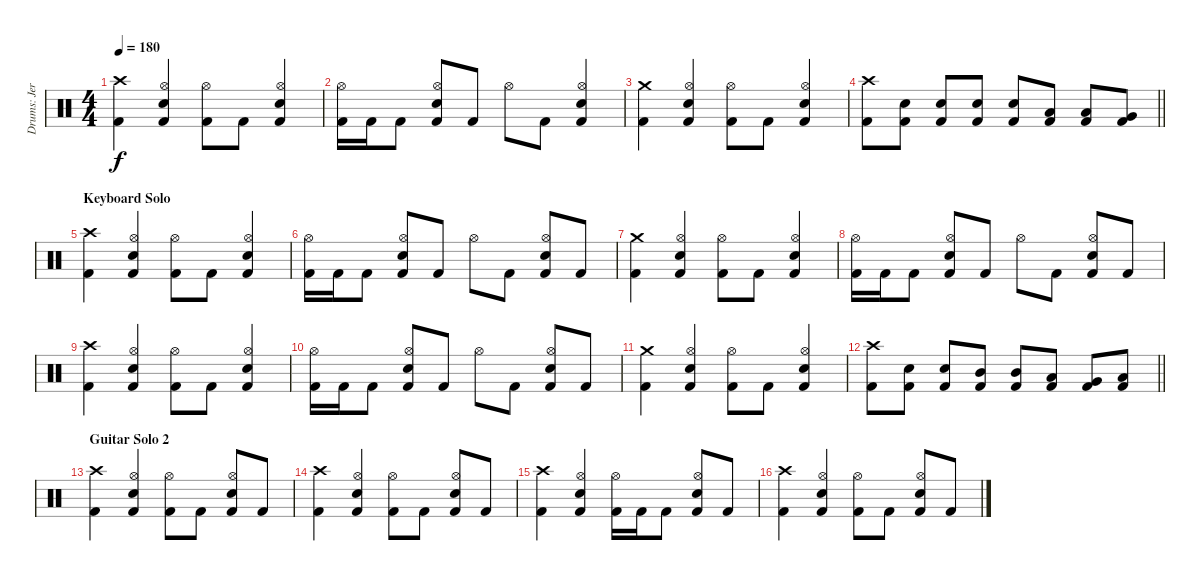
\track ("Drums: Jere Luokkamäki" "Drums: Jer") {instrument percussion}
\staff {score}
\articulation defaults
\ts (4 4)
\tempo 180
\clef neutral
\ks aminor
("Crash high (hit)" "Kick (hit) 2").4{dy f} ("Hi-Hat (open)" "Electric Snare (hit)" "Kick (hit) 2").4 ("Hi-Hat (open)" "Kick (hit) 2").8 "Kick (hit) 2".8 ("Hi-Hat (open)" "Electric Snare (hit)" "Kick (hit) 2").4 |
("Hi-Hat (open)" "Kick (hit) 2").16 "Kick (hit) 2".16 "Kick (hit) 2".8 ("Hi-Hat (open)" "Electric Snare (hit)" "Kick (hit) 2").8 "Kick (hit) 2".8 "Hi-Hat (open)".8 "Kick (hit) 2".8 ("Hi-Hat (open)" "Electric Snare (hit)" "Kick (hit) 2").4 |
("Crash medium (hit)" "Kick (hit) 2").4 ("Hi-Hat (open)" "Electric Snare (hit)" "Kick (hit) 2").4 ("Hi-Hat (open)" "Kick (hit) 2").8 "Kick (hit) 2".8 ("Hi-Hat (open)" "Electric Snare (hit)" "Kick (hit) 2").4 |
\barLineRight lightlight
("Crash high (hit)" "Kick (hit) 2").8 ("Electric Snare (hit)" "Kick (hit) 2").8 ("Electric Snare (hit)" "Kick (hit) 2").8 ("Electric Snare (hit)" "Kick (hit) 2").8 ("Electric Snare (hit)" "Kick (hit) 2").8 ("Low Tom (hit)" "Kick (hit) 2").8 ("Low Tom (hit)" "Kick (hit) 2").8 ("Very Low Tom (hit)" "Kick (hit) 2").8 |
\section ("" "Keyboard Solo")
("Crash high (hit)" "Kick (hit) 2").4 ("Hi-Hat (open)" "Electric Snare (hit)" "Kick (hit) 2").4 ("Hi-Hat (open)" "Kick (hit) 2").8 "Kick (hit) 2".8 ("Hi-Hat (open)" "Electric Snare (hit)" "Kick (hit) 2").4 |
("Hi-Hat (open)" "Kick (hit) 2").16 "Kick (hit) 2".16 "Kick (hit) 2".8 ("Hi-Hat (open)" "Electric Snare (hit)" "Kick (hit) 2").8 "Kick (hit) 2".8 "Hi-Hat (open)".8 "Kick (hit) 2".8 ("Hi-Hat (open)" "Electric Snare (hit)" "Kick (hit) 2").8 "Kick (hit) 2".8 |
("Crash medium (hit)" "Kick (hit) 2").4 ("Hi-Hat (open)" "Electric Snare (hit)" "Kick (hit) 2").4 ("Hi-Hat (open)" "Kick (hit) 2").8 "Kick (hit) 2".8 ("Hi-Hat (open)" "Electric Snare (hit)" "Kick (hit) 2").4 |
("Hi-Hat (open)" "Kick (hit) 2").16 "Kick (hit) 2".16 "Kick (hit) 2".8 ("Hi-Hat (open)" "Electric Snare (hit)" "Kick (hit) 2").8 "Kick (hit) 2".8 "Hi-Hat (open)".8 "Kick (hit) 2".8 ("Hi-Hat (open)" "Electric Snare (hit)" "Kick (hit) 2").8 "Kick (hit) 2".8 |
("Crash high (hit)" "Kick (hit) 2").4 ("Hi-Hat (open)" "Electric Snare (hit)" "Kick (hit) 2").4 ("Hi-Hat (open)" "Kick (hit) 2").8 "Kick (hit) 2".8 ("Hi-Hat (open)" "Electric Snare (hit)" "Kick (hit) 2").4 |
("Hi-Hat (open)" "Kick (hit) 2").16 "Kick (hit) 2".16 "Kick (hit) 2".8 ("Hi-Hat (open)" "Electric Snare (hit)" "Kick (hit) 2").8 "Kick (hit) 2".8 "Hi-Hat (open)".8 "Kick (hit) 2".8 ("Hi-Hat (open)" "Electric Snare (hit)" "Kick (hit) 2").8 "Kick (hit) 2".8 |
("Crash medium (hit)" "Kick (hit) 2").4 ("Hi-Hat (open)" "Electric Snare (hit)" "Kick (hit) 2").4 ("Hi-Hat (open)" "Kick (hit) 2").8 "Kick (hit) 2".8 ("Hi-Hat (open)" "Electric Snare (hit)" "Kick (hit) 2").4 |
\barLineRight lightlight
("Crash high (hit)" "Kick (hit) 2").8 ("Electric Snare (hit)" "Kick (hit) 2").8 ("Electric Snare (hit)" "Kick (hit) 2").8 ("Mid Tom (hit)" "Kick (hit) 2").8 ("Mid Tom (hit)" "Kick (hit) 2").8 ("Low Tom (hit)" "Kick (hit) 2").8 ("Very Low Tom (hit)" "Kick (hit) 2").8 ("Low Floor Tom (hit)" "Kick (hit) 2").8 |
\section ("" "Guitar Solo 2")
("Crash high (hit)" "Kick (hit) 2").4 ("Hi-Hat (open)" "Electric Snare (hit)" "Kick (hit) 2").4 ("Hi-Hat (open)" "Kick (hit) 2").8 "Kick (hit) 2".8 ("Hi-Hat (open)" "Electric Snare (hit)" "Kick (hit) 2").8 "Kick (hit) 2".8 |
("Crash high (hit)" "Kick (hit) 2").4 ("Hi-Hat (open)" "Electric Snare (hit)" "Kick (hit) 2").4 ("Hi-Hat (open)" "Kick (hit) 2").8 "Kick (hit) 2".8 ("Hi-Hat (open)" "Electric Snare (hit)" "Kick (hit) 2").8 "Kick (hit) 2".8 |
("Crash high (hit)" "Kick (hit) 2").4 ("Hi-Hat (open)" "Electric Snare (hit)" "Kick (hit) 2").4 ("Hi-Hat (open)" "Kick (hit) 2").16 "Kick (hit) 2".16 "Kick (hit) 2".8 ("Hi-Hat (open)" "Electric Snare (hit)" "Kick (hit) 2").8 "Kick (hit) 2".8 |
("Crash high (hit)" "Kick (hit) 2").4 ("Hi-Hat (open)" "Electric Snare (hit)" "Kick (hit) 2").4 ("Hi-Hat (open)" "Kick (hit) 2").8 "Kick (hit) 2".8 ("Hi-Hat (open)" "Electric Snare (hit)" "Kick (hit) 2").8 "Kick (hit) 2".8
